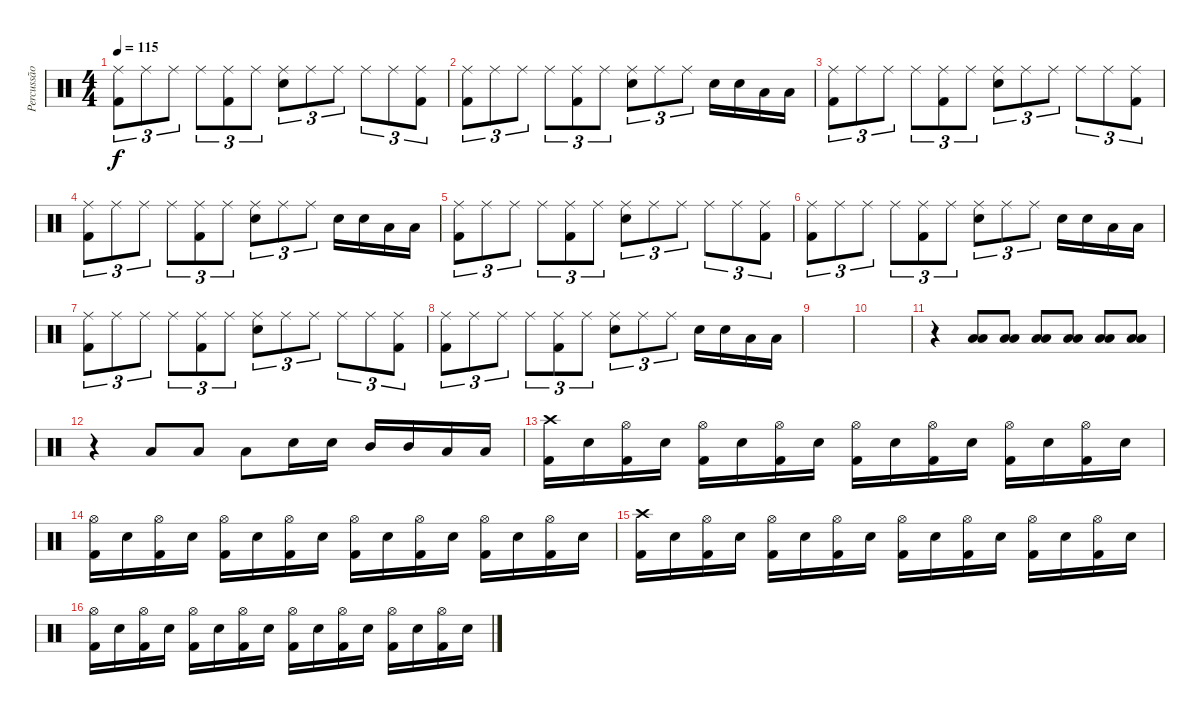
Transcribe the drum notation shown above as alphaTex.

\track ("Percussão" "Percussão") {instrument percussion}
\staff {score}
\articulation defaults
\ts (4 4)
\tempo 115
\clef neutral
\ks c
("Ride (middle)" "Kick (hit) 2").8{tu (3 2) dy f} "Ride (middle)".8{tu (3 2)} "Ride (middle)".8{tu (3 2)} "Ride (middle)".8{tu (3 2)} ("Ride (middle)" "Kick (hit) 2").8{tu (3 2)} "Ride (middle)".8{tu (3 2)} ("Ride (middle)" "Electric Snare (hit)").8{tu (3 2)} "Ride (middle)".8{tu (3 2)} "Ride (middle)".8{tu (3 2)} "Ride (middle)".8{tu (3 2)} "Ride (middle)".8{tu (3 2)} ("Ride (middle)" "Kick (hit) 2").8{tu (3 2)} |
("Ride (middle)" "Kick (hit) 2").8{tu (3 2)} "Ride (middle)".8{tu (3 2)} "Ride (middle)".8{tu (3 2)} "Ride (middle)".8{tu (3 2)} ("Ride (middle)" "Kick (hit) 2").8{tu (3 2)} "Ride (middle)".8{tu (3 2)} ("Ride (middle)" "Electric Snare (hit)").8{tu (3 2)} "Ride (middle)".8{tu (3 2)} "Ride (middle)".8{tu (3 2)} "Electric Snare (hit)".16 "Electric Snare (hit)".16 "Low Tom (hit)".16 "Low Tom (hit)".16 |
("Ride (middle)" "Kick (hit) 2").8{tu (3 2)} "Ride (middle)".8{tu (3 2)} "Ride (middle)".8{tu (3 2)} "Ride (middle)".8{tu (3 2)} ("Ride (middle)" "Kick (hit) 2").8{tu (3 2)} "Ride (middle)".8{tu (3 2)} ("Ride (middle)" "Electric Snare (hit)").8{tu (3 2)} "Ride (middle)".8{tu (3 2)} "Ride (middle)".8{tu (3 2)} "Ride (middle)".8{tu (3 2)} "Ride (middle)".8{tu (3 2)} ("Ride (middle)" "Kick (hit) 2").8{tu (3 2)} |
("Ride (middle)" "Kick (hit) 2").8{tu (3 2)} "Ride (middle)".8{tu (3 2)} "Ride (middle)".8{tu (3 2)} "Ride (middle)".8{tu (3 2)} ("Ride (middle)" "Kick (hit) 2").8{tu (3 2)} "Ride (middle)".8{tu (3 2)} ("Ride (middle)" "Electric Snare (hit)").8{tu (3 2)} "Ride (middle)".8{tu (3 2)} "Ride (middle)".8{tu (3 2)} "Electric Snare (hit)".16 "Electric Snare (hit)".16 "Low Tom (hit)".16 "Low Tom (hit)".16 |
("Ride (middle)" "Kick (hit) 2").8{tu (3 2)} "Ride (middle)".8{tu (3 2)} "Ride (middle)".8{tu (3 2)} "Ride (middle)".8{tu (3 2)} ("Ride (middle)" "Kick (hit) 2").8{tu (3 2)} "Ride (middle)".8{tu (3 2)} ("Ride (middle)" "Electric Snare (hit)").8{tu (3 2)} "Ride (middle)".8{tu (3 2)} "Ride (middle)".8{tu (3 2)} "Ride (middle)".8{tu (3 2)} "Ride (middle)".8{tu (3 2)} ("Ride (middle)" "Kick (hit) 2").8{tu (3 2)} |
("Ride (middle)" "Kick (hit) 2").8{tu (3 2)} "Ride (middle)".8{tu (3 2)} "Ride (middle)".8{tu (3 2)} "Ride (middle)".8{tu (3 2)} ("Ride (middle)" "Kick (hit) 2").8{tu (3 2)} "Ride (middle)".8{tu (3 2)} ("Ride (middle)" "Electric Snare (hit)").8{tu (3 2)} "Ride (middle)".8{tu (3 2)} "Ride (middle)".8{tu (3 2)} "Electric Snare (hit)".16 "Electric Snare (hit)".16 "Low Tom (hit)".16 "Low Tom (hit)".16 |
("Ride (middle)" "Kick (hit) 2").8{tu (3 2)} "Ride (middle)".8{tu (3 2)} "Ride (middle)".8{tu (3 2)} "Ride (middle)".8{tu (3 2)} ("Ride (middle)" "Kick (hit) 2").8{tu (3 2)} "Ride (middle)".8{tu (3 2)} ("Ride (middle)" "Electric Snare (hit)").8{tu (3 2)} "Ride (middle)".8{tu (3 2)} "Ride (middle)".8{tu (3 2)} "Ride (middle)".8{tu (3 2)} "Ride (middle)".8{tu (3 2)} ("Ride (middle)" "Kick (hit) 2").8{tu (3 2)} |
("Ride (middle)" "Kick (hit) 2").8{tu (3 2)} "Ride (middle)".8{tu (3 2)} "Ride (middle)".8{tu (3 2)} "Ride (middle)".8{tu (3 2)} ("Ride (middle)" "Kick (hit) 2").8{tu (3 2)} "Ride (middle)".8{tu (3 2)} ("Ride (middle)" "Electric Snare (hit)").8{tu (3 2)} "Ride (middle)".8{tu (3 2)} "Ride (middle)".8{tu (3 2)} "Electric Snare (hit)".16 "Electric Snare (hit)".16 "Low Tom (hit)".16 "Low Tom (hit)".16 |
|
|
r.4 ("Low Tom (hit)" "Low Floor Tom (hit)").8 ("Low Tom (hit)" "Low Floor Tom (hit)").8 ("Low Tom (hit)" "Low Floor Tom (hit)").8 ("Low Tom (hit)" "Low Floor Tom (hit)").8 ("Low Tom (hit)" "Low Floor Tom (hit)").8 ("Low Tom (hit)" "Low Floor Tom (hit)").8 |
r.4 "Low Floor Tom (hit)".8 "Low Floor Tom (hit)".8 "Low Floor Tom (hit)".8 "Electric Snare (hit)".16 "Electric Snare (hit)".16 "Mid Tom (hit)".16 "Mid Tom (hit)".16 "Low Tom (hit)".16 "Low Tom (hit)".16 |
("Crash high (hit)" "Kick (hit) 2").16 "Electric Snare (hit)".16 ("Hi-Hat (open)" "Kick (hit) 2").16 "Electric Snare (hit)".16 ("Hi-Hat (open)" "Kick (hit) 2").16 "Electric Snare (hit)".16 ("Hi-Hat (open)" "Kick (hit) 2").16 "Electric Snare (hit)".16 ("Hi-Hat (open)" "Kick (hit) 2").16 "Electric Snare (hit)".16 ("Hi-Hat (open)" "Kick (hit) 2").16 "Electric Snare (hit)".16 ("Hi-Hat (open)" "Kick (hit) 2").16 "Electric Snare (hit)".16 ("Hi-Hat (open)" "Kick (hit) 2").16 "Electric Snare (hit)".16 |
("Hi-Hat (open)" "Kick (hit) 2").16 "Electric Snare (hit)".16 ("Hi-Hat (open)" "Kick (hit) 2").16 "Electric Snare (hit)".16 ("Hi-Hat (open)" "Kick (hit) 2").16 "Electric Snare (hit)".16 ("Hi-Hat (open)" "Kick (hit) 2").16 "Electric Snare (hit)".16 ("Hi-Hat (open)" "Kick (hit) 2").16 "Electric Snare (hit)".16 ("Hi-Hat (open)" "Kick (hit) 2").16 "Electric Snare (hit)".16 ("Hi-Hat (open)" "Kick (hit) 2").16 "Electric Snare (hit)".16 ("Hi-Hat (open)" "Kick (hit) 2").16 "Electric Snare (hit)".16 |
("Crash high (hit)" "Kick (hit) 2").16 "Electric Snare (hit)".16 ("Hi-Hat (open)" "Kick (hit) 2").16 "Electric Snare (hit)".16 ("Hi-Hat (open)" "Kick (hit) 2").16 "Electric Snare (hit)".16 ("Hi-Hat (open)" "Kick (hit) 2").16 "Electric Snare (hit)".16 ("Hi-Hat (open)" "Kick (hit) 2").16 "Electric Snare (hit)".16 ("Hi-Hat (open)" "Kick (hit) 2").16 "Electric Snare (hit)".16 ("Hi-Hat (open)" "Kick (hit) 2").16 "Electric Snare (hit)".16 ("Hi-Hat (open)" "Kick (hit) 2").16 "Electric Snare (hit)".16 |
("Hi-Hat (open)" "Kick (hit) 2").16 "Electric Snare (hit)".16 ("Hi-Hat (open)" "Kick (hit) 2").16 "Electric Snare (hit)".16 ("Hi-Hat (open)" "Kick (hit) 2").16 "Electric Snare (hit)".16 ("Hi-Hat (open)" "Kick (hit) 2").16 "Electric Snare (hit)".16 ("Hi-Hat (open)" "Kick (hit) 2").16 "Electric Snare (hit)".16 ("Hi-Hat (open)" "Kick (hit) 2").16 "Electric Snare (hit)".16 ("Hi-Hat (open)" "Kick (hit) 2").16 "Electric Snare (hit)".16 ("Hi-Hat (open)" "Kick (hit) 2").16 "Electric Snare (hit)".16
